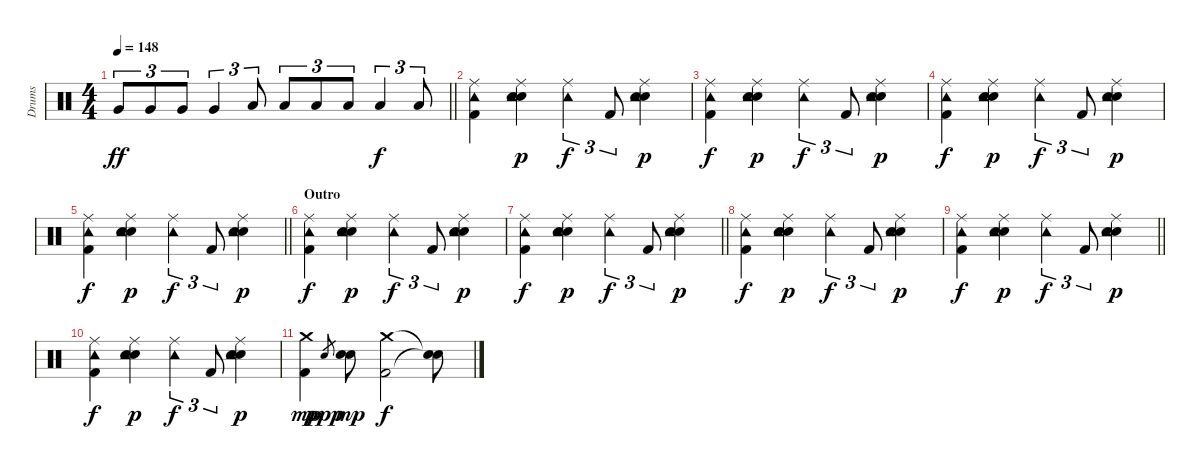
\track ("Drums" "Drums") {instrument percussion}
\staff {score}
\articulation defaults
\ts (4 4)
\tempo 148
\clef neutral
\barLineRight lightlight
\ks c "Very Low Tom (hit)".8{tu (3 2) dy ff} "Very Low Tom (hit)".8{tu (3 2)} "Very Low Tom (hit)".8{tu (3 2)} "Very Low Tom (hit)".4{tu (3 2)} "Low Floor Tom (hit)".8{tu (3 2)} "Low Floor Tom (hit)".8{tu (3 2)} "Low Floor Tom (hit)".8{tu (3 2)} "Low Floor Tom (hit)".8{tu (3 2)} "Low Floor Tom (hit)".4{tu (3 2) dy f} "Low Floor Tom (hit)".8{tu (3 2)}
|
("Ride (middle)" "Tambourine (hit)" "Kick (hit) 2").4 ("Ride (middle)" "Hand Clap (hit)" "Tambourine (hit)" "Electric Snare (hit)").4{dy p} ("Ride (middle)" "Tambourine (hit)").4{tu (3 2) dy f} "Kick (hit) 2".8{tu (3 2)} ("Ride (middle)" "Hand Clap (hit)" "Tambourine (hit)" "Electric Snare (hit)").4{dy p} |
("Ride (middle)" "Tambourine (hit)" "Kick (hit) 2").4{dy f} ("Ride (middle)" "Hand Clap (hit)" "Tambourine (hit)" "Electric Snare (hit)").4{dy p} ("Ride (middle)" "Tambourine (hit)").4{tu (3 2) dy f} "Kick (hit) 2".8{tu (3 2)} ("Ride (middle)" "Hand Clap (hit)" "Tambourine (hit)" "Electric Snare (hit)").4{dy p} |
("Ride (middle)" "Tambourine (hit)" "Kick (hit) 2").4{dy f} ("Ride (middle)" "Hand Clap (hit)" "Tambourine (hit)" "Electric Snare (hit)").4{dy p} ("Ride (middle)" "Tambourine (hit)").4{tu (3 2) dy f} "Kick (hit) 2".8{tu (3 2)} ("Ride (middle)" "Hand Clap (hit)" "Tambourine (hit)" "Electric Snare (hit)").4{dy p} |
\barLineRight lightlight
("Ride (middle)" "Tambourine (hit)" "Kick (hit) 2").4{dy f} ("Ride (middle)" "Hand Clap (hit)" "Tambourine (hit)" "Electric Snare (hit)").4{dy p} ("Ride (middle)" "Tambourine (hit)").4{tu (3 2) dy f} "Kick (hit) 2".8{tu (3 2)} ("Ride (middle)" "Hand Clap (hit)" "Tambourine (hit)" "Electric Snare (hit)").4{dy p} |
\section ("" "Outro")
("Ride (middle)" "Tambourine (hit)" "Kick (hit) 2").4{dy f} ("Ride (middle)" "Hand Clap (hit)" "Tambourine (hit)" "Electric Snare (hit)").4{dy p} ("Ride (middle)" "Tambourine (hit)").4{tu (3 2) dy f} "Kick (hit) 2".8{tu (3 2)} ("Ride (middle)" "Hand Clap (hit)" "Tambourine (hit)" "Electric Snare (hit)").4{dy p} |
\barLineRight lightlight
("Ride (middle)" "Tambourine (hit)" "Kick (hit) 2").4{dy f} ("Ride (middle)" "Hand Clap (hit)" "Tambourine (hit)" "Electric Snare (hit)").4{dy p} ("Ride (middle)" "Tambourine (hit)").4{tu (3 2) dy f} "Kick (hit) 2".8{tu (3 2)} ("Ride (middle)" "Hand Clap (hit)" "Tambourine (hit)" "Electric Snare (hit)").4{dy p} |
("Ride (middle)" "Tambourine (hit)" "Kick (hit) 2").4{dy f} ("Ride (middle)" "Hand Clap (hit)" "Tambourine (hit)" "Electric Snare (hit)").4{dy p} ("Ride (middle)" "Tambourine (hit)").4{tu (3 2) dy f} "Kick (hit) 2".8{tu (3 2)} ("Ride (middle)" "Hand Clap (hit)" "Tambourine (hit)" "Electric Snare (hit)").4{dy p} |
\barLineRight lightlight
("Ride (middle)" "Tambourine (hit)" "Kick (hit) 2").4{dy f} ("Ride (middle)" "Hand Clap (hit)" "Tambourine (hit)" "Electric Snare (hit)").4{dy p} ("Ride (middle)" "Tambourine (hit)").4{tu (3 2) dy f} "Kick (hit) 2".8{tu (3 2)} ("Ride (middle)" "Hand Clap (hit)" "Tambourine (hit)" "Electric Snare (hit)").4{dy p} |
("Ride (middle)" "Tambourine (hit)" "Kick (hit) 2").4{dy f} ("Ride (middle)" "Hand Clap (hit)" "Tambourine (hit)" "Electric Snare (hit)").4{dy p} ("Ride (middle)" "Tambourine (hit)").4{tu (3 2) dy f} "Kick (hit) 2".8{tu (3 2)} ("Ride (middle)" "Hand Clap (hit)" "Tambourine (hit)" "Electric Snare (hit)").4{dy p} |
("Crash medium (hit)" "Kick (hit) 2").4{dy mp} "Snare (hit) 2".8{gr dy ppp} ("Snare (hit) 2" "Electric Snare (hit)").8{dy mp} ("Crash medium (hit)" "Kick (hit) 2").2{dy f} ("Snare (hit)"{t} "Snare (hit)"{t}).8
